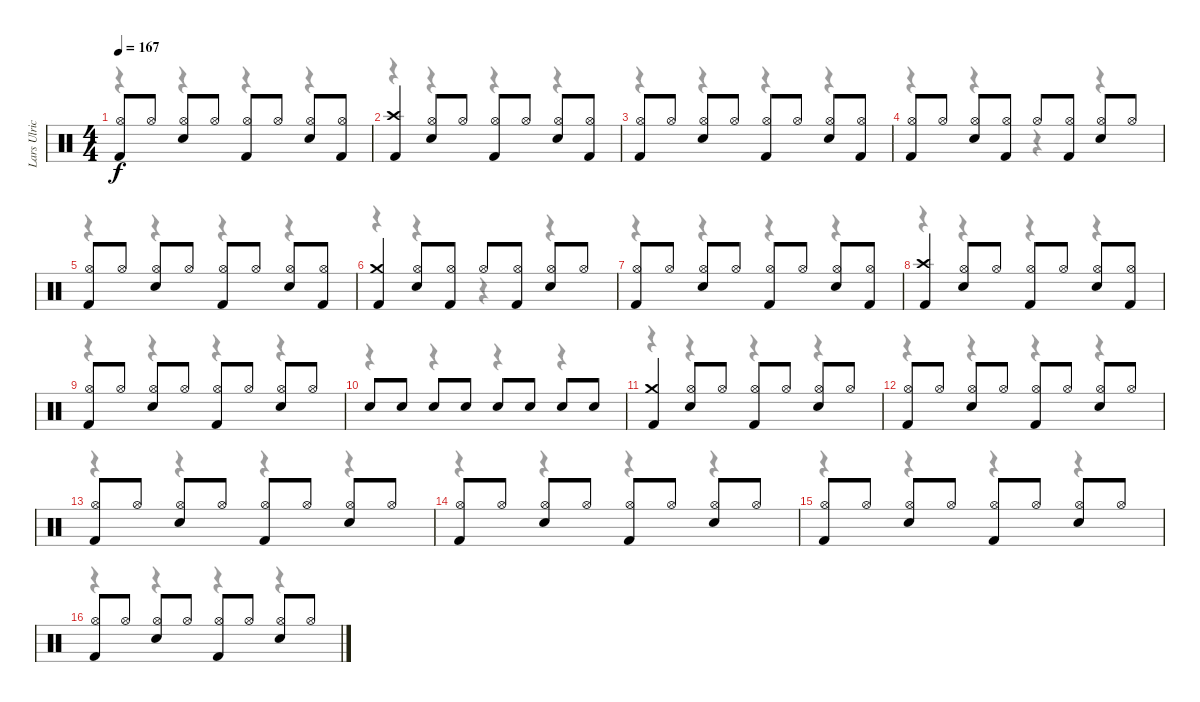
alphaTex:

\track ("Lars Ulrich" "Lars Ulric") {instrument percussion}
\staff {score}
\articulation defaults
\voice
\ts (4 4)
\tempo 167
\clef neutral
\ks c
("Hi-Hat (open)" "Kick (hit) 2").8{dy f} "Hi-Hat (open)".8 ("Hi-Hat (open)" "Snare (hit) 2").8 "Hi-Hat (open)".8 ("Hi-Hat (open)" "Kick (hit) 2").8 "Hi-Hat (open)".8 ("Hi-Hat (open)" "Snare (hit) 2").8 ("Hi-Hat (open)" "Kick (hit) 2").8 |
("Crash high (hit)" "Kick (hit) 2").4 ("Hi-Hat (open)" "Snare (hit) 2").8 "Hi-Hat (open)".8 ("Hi-Hat (open)" "Kick (hit) 2").8 "Hi-Hat (open)".8 ("Hi-Hat (open)" "Snare (hit) 2").8 ("Hi-Hat (open)" "Kick (hit) 2").8 |
("Hi-Hat (open)" "Kick (hit) 2").8 "Hi-Hat (open)".8 ("Hi-Hat (open)" "Snare (hit) 2").8 "Hi-Hat (open)".8 ("Hi-Hat (open)" "Kick (hit) 2").8 "Hi-Hat (open)".8 ("Hi-Hat (open)" "Snare (hit) 2").8 ("Hi-Hat (open)" "Kick (hit) 2").8 |
("Hi-Hat (open)" "Kick (hit) 2").8 "Hi-Hat (open)".8 ("Hi-Hat (open)" "Snare (hit) 2").8 ("Hi-Hat (open)" "Kick (hit) 2").8 "Hi-Hat (open)".8 ("Hi-Hat (open)" "Kick (hit) 2").8 ("Hi-Hat (open)" "Snare (hit) 2").8 "Hi-Hat (open)".8 |
("Hi-Hat (open)" "Kick (hit) 2").8 "Hi-Hat (open)".8 ("Hi-Hat (open)" "Snare (hit) 2").8 "Hi-Hat (open)".8 ("Hi-Hat (open)" "Kick (hit) 2").8 "Hi-Hat (open)".8 ("Hi-Hat (open)" "Snare (hit) 2").8 ("Hi-Hat (open)" "Kick (hit) 2").8 |
("Crash medium (hit)" "Kick (hit) 2").4 ("Hi-Hat (open)" "Snare (hit) 2").8 ("Hi-Hat (open)" "Kick (hit) 2").8 "Hi-Hat (open)".8 ("Hi-Hat (open)" "Kick (hit) 2").8 ("Hi-Hat (open)" "Snare (hit) 2").8 "Hi-Hat (open)".8 |
("Hi-Hat (open)" "Kick (hit) 2").8 "Hi-Hat (open)".8 ("Hi-Hat (open)" "Snare (hit) 2").8 "Hi-Hat (open)".8 ("Hi-Hat (open)" "Kick (hit) 2").8 "Hi-Hat (open)".8 ("Hi-Hat (open)" "Snare (hit) 2").8 ("Hi-Hat (open)" "Kick (hit) 2").8 |
("Crash high (hit)" "Kick (hit) 2").4 ("Hi-Hat (open)" "Snare (hit) 2").8 "Hi-Hat (open)".8 ("Hi-Hat (open)" "Kick (hit) 2").8 "Hi-Hat (open)".8 ("Hi-Hat (open)" "Snare (hit) 2").8 ("Hi-Hat (open)" "Kick (hit) 2").8 |
("Hi-Hat (open)" "Kick (hit) 2").8 "Hi-Hat (open)".8 ("Hi-Hat (open)" "Snare (hit) 2").8 "Hi-Hat (open)".8 ("Hi-Hat (open)" "Kick (hit) 2").8 "Hi-Hat (open)".8 ("Hi-Hat (open)" "Snare (hit) 2").8 "Hi-Hat (open)".8 |
"Snare (hit) 2".8 "Snare (hit) 2".8 "Snare (hit) 2".8 "Snare (hit) 2".8 "Snare (hit) 2".8 "Snare (hit) 2".8 "Snare (hit) 2".8 "Snare (hit) 2".8 |
("Crash medium (hit)" "Kick (hit) 2").4 ("Hi-Hat (open)" "Snare (hit) 2").8 "Hi-Hat (open)".8 ("Hi-Hat (open)" "Kick (hit) 2").8 "Hi-Hat (open)".8 ("Hi-Hat (open)" "Snare (hit) 2").8 "Hi-Hat (open)".8 |
("Hi-Hat (open)" "Kick (hit) 2").8 "Hi-Hat (open)".8 ("Hi-Hat (open)" "Snare (hit) 2").8 "Hi-Hat (open)".8 ("Hi-Hat (open)" "Kick (hit) 2").8 "Hi-Hat (open)".8 ("Hi-Hat (open)" "Snare (hit) 2").8 "Hi-Hat (open)".8 |
("Hi-Hat (open)" "Kick (hit) 2").8 "Hi-Hat (open)".8 ("Hi-Hat (open)" "Snare (hit) 2").8 "Hi-Hat (open)".8 ("Hi-Hat (open)" "Kick (hit) 2").8 "Hi-Hat (open)".8 ("Hi-Hat (open)" "Snare (hit) 2").8 "Hi-Hat (open)".8 |
("Hi-Hat (open)" "Kick (hit) 2").8 "Hi-Hat (open)".8 ("Hi-Hat (open)" "Snare (hit) 2").8 "Hi-Hat (open)".8 ("Hi-Hat (open)" "Kick (hit) 2").8 "Hi-Hat (open)".8 ("Hi-Hat (open)" "Snare (hit) 2").8 "Hi-Hat (open)".8 |
("Hi-Hat (open)" "Kick (hit) 2").8 "Hi-Hat (open)".8 ("Hi-Hat (open)" "Snare (hit) 2").8 "Hi-Hat (open)".8 ("Hi-Hat (open)" "Kick (hit) 2").8 "Hi-Hat (open)".8 ("Hi-Hat (open)" "Snare (hit) 2").8 "Hi-Hat (open)".8 |
("Hi-Hat (open)" "Kick (hit) 2").8 "Hi-Hat (open)".8 ("Hi-Hat (open)" "Snare (hit) 2").8 "Hi-Hat (open)".8 ("Hi-Hat (open)" "Kick (hit) 2").8 "Hi-Hat (open)".8 ("Hi-Hat (open)" "Snare (hit) 2").8 "Hi-Hat (open)".8
\voice
\clef neutral
\ottava regular
\simile none
\ks c
r.4{dy f} r.4 r.4 r.4 |
r.4 r.4 r.4 r.4 |
r.4 r.4 r.4 r.4 |
r.4 r.4 r.4 r.4 |
r.4 r.4 r.4 r.4 |
r.4 r.4 r.4 r.4 |
r.4 r.4 r.4 r.4 |
r.4 r.4 r.4 r.4 |
r.4 r.4 r.4 r.4 |
r.4 r.4 r.4 r.4 |
r.4 r.4 r.4 r.4 |
r.4 r.4 r.4 r.4 |
r.4 r.4 r.4 r.4 |
r.4 r.4 r.4 r.4 |
r.4 r.4 r.4 r.4 |
r.4 r.4 r.4 r.4
